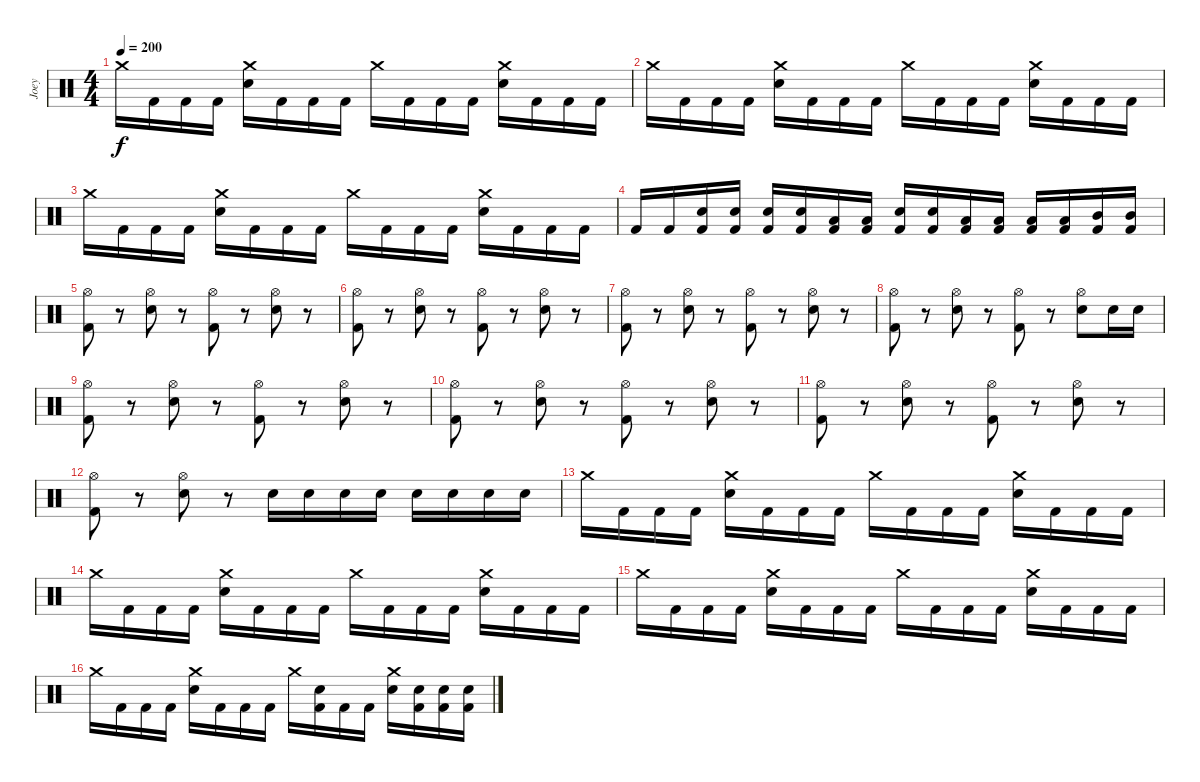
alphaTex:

\track ("Joey" "Joey") {instrument percussion}
\staff {score}
\articulation defaults
\ts (4 4)
\tempo 200
\clef neutral
\ks c "Crash medium (hit)".16{dy f} "Kick (hit) 2".16 "Kick (hit) 2".16 "Kick (hit) 2".16
("Crash medium (hit)" "Electric Snare (hit)").16 "Kick (hit) 2".16 "Kick (hit) 2".16 "Kick (hit) 2".16 "Crash medium (hit)".16 "Kick (hit) 2".16 "Kick (hit) 2".16 "Kick (hit) 2".16 ("Crash medium (hit)" "Electric Snare (hit)").16 "Kick (hit) 2".16 "Kick (hit) 2".16 "Kick (hit) 2".16 |
"Crash medium (hit)".16 "Kick (hit) 2".16 "Kick (hit) 2".16 "Kick (hit) 2".16 ("Crash medium (hit)" "Electric Snare (hit)").16 "Kick (hit) 2".16 "Kick (hit) 2".16 "Kick (hit) 2".16 "Crash medium (hit)".16 "Kick (hit) 2".16 "Kick (hit) 2".16 "Kick (hit) 2".16 ("Crash medium (hit)" "Electric Snare (hit)").16 "Kick (hit) 2".16 "Kick (hit) 2".16 "Kick (hit) 2".16 |
"Crash medium (hit)".16 "Kick (hit) 2".16 "Kick (hit) 2".16 "Kick (hit) 2".16 ("Crash medium (hit)" "Electric Snare (hit)").16 "Kick (hit) 2".16 "Kick (hit) 2".16 "Kick (hit) 2".16 "Crash medium (hit)".16 "Kick (hit) 2".16 "Kick (hit) 2".16 "Kick (hit) 2".16 ("Crash medium (hit)" "Electric Snare (hit)").16 "Kick (hit) 2".16 "Kick (hit) 2".16 "Kick (hit) 2".16 |
"Kick (hit) 2".16 "Kick (hit) 2".16 ("Kick (hit) 2" "Electric Snare (hit)").16 ("Kick (hit) 2" "Electric Snare (hit)").16 ("Kick (hit) 2" "Electric Snare (hit)").16 ("Kick (hit) 2" "Electric Snare (hit)").16 ("Kick (hit) 2" "Low Floor Tom (hit)").16 ("Kick (hit) 2" "Low Floor Tom (hit)").16 ("Kick (hit) 2" "Electric Snare (hit)").16 ("Kick (hit) 2" "Electric Snare (hit)").16 ("Kick (hit) 2" "Low Floor Tom (hit)").16 ("Kick (hit) 2" "Low Floor Tom (hit)").16 ("Kick (hit) 2" "Low Tom (hit)").16 ("Kick (hit) 2" "Low Tom (hit)").16 ("Kick (hit) 2" "Mid Tom (hit)").16 ("Kick (hit) 2" "Mid Tom (hit)").16 |
("Hi-Hat (open)" "Kick (hit) 2").8 r.8 ("Hi-Hat (open)" "Electric Snare (hit)").8 r.8 ("Hi-Hat (open)" "Kick (hit) 2").8 r.8 ("Hi-Hat (open)" "Electric Snare (hit)").8 r.8 |
("Hi-Hat (open)" "Kick (hit) 2").8 r.8 ("Hi-Hat (open)" "Electric Snare (hit)").8 r.8 ("Hi-Hat (open)" "Kick (hit) 2").8 r.8 ("Hi-Hat (open)" "Electric Snare (hit)").8 r.8 |
("Hi-Hat (open)" "Kick (hit) 2").8 r.8 ("Hi-Hat (open)" "Electric Snare (hit)").8 r.8 ("Hi-Hat (open)" "Kick (hit) 2").8 r.8 ("Hi-Hat (open)" "Electric Snare (hit)").8 r.8 |
("Hi-Hat (open)" "Kick (hit) 2").8 r.8 ("Hi-Hat (open)" "Electric Snare (hit)").8 r.8 ("Hi-Hat (open)" "Kick (hit) 2").8 r.8 ("Hi-Hat (open)" "Electric Snare (hit)").8 "Electric Snare (hit)".16 "Electric Snare (hit)".16 |
("Hi-Hat (open)" "Kick (hit) 2").8 r.8 ("Hi-Hat (open)" "Electric Snare (hit)").8 r.8 ("Hi-Hat (open)" "Kick (hit) 2").8 r.8 ("Hi-Hat (open)" "Electric Snare (hit)").8 r.8 |
("Hi-Hat (open)" "Kick (hit) 2").8 r.8 ("Hi-Hat (open)" "Electric Snare (hit)").8 r.8 ("Hi-Hat (open)" "Kick (hit) 2").8 r.8 ("Hi-Hat (open)" "Electric Snare (hit)").8 r.8 |
("Hi-Hat (open)" "Kick (hit) 2").8 r.8 ("Hi-Hat (open)" "Electric Snare (hit)").8 r.8 ("Hi-Hat (open)" "Kick (hit) 2").8 r.8 ("Hi-Hat (open)" "Electric Snare (hit)").8 r.8 |
("Hi-Hat (open)" "Kick (hit) 2").8 r.8 ("Hi-Hat (open)" "Electric Snare (hit)").8 r.8 "Electric Snare (hit)".16 "Electric Snare (hit)".16 "Electric Snare (hit)".16 "Electric Snare (hit)".16 "Electric Snare (hit)".16 "Electric Snare (hit)".16 "Electric Snare (hit)".16 "Electric Snare (hit)".16 |
"Crash medium (hit)".16 "Kick (hit) 2".16 "Kick (hit) 2".16 "Kick (hit) 2".16 ("Crash medium (hit)" "Electric Snare (hit)").16 "Kick (hit) 2".16 "Kick (hit) 2".16 "Kick (hit) 2".16 "Crash medium (hit)".16 "Kick (hit) 2".16 "Kick (hit) 2".16 "Kick (hit) 2".16 ("Crash medium (hit)" "Electric Snare (hit)").16 "Kick (hit) 2".16 "Kick (hit) 2".16 "Kick (hit) 2".16 |
"Crash medium (hit)".16 "Kick (hit) 2".16 "Kick (hit) 2".16 "Kick (hit) 2".16 ("Crash medium (hit)" "Electric Snare (hit)").16 "Kick (hit) 2".16 "Kick (hit) 2".16 "Kick (hit) 2".16 "Crash medium (hit)".16 "Kick (hit) 2".16 "Kick (hit) 2".16 "Kick (hit) 2".16 ("Crash medium (hit)" "Electric Snare (hit)").16 "Kick (hit) 2".16 "Kick (hit) 2".16 "Kick (hit) 2".16 |
"Crash medium (hit)".16 "Kick (hit) 2".16 "Kick (hit) 2".16 "Kick (hit) 2".16 ("Crash medium (hit)" "Electric Snare (hit)").16 "Kick (hit) 2".16 "Kick (hit) 2".16 "Kick (hit) 2".16 "Crash medium (hit)".16 "Kick (hit) 2".16 "Kick (hit) 2".16 "Kick (hit) 2".16 ("Crash medium (hit)" "Electric Snare (hit)").16 "Kick (hit) 2".16 "Kick (hit) 2".16 "Kick (hit) 2".16 |
"Crash medium (hit)".16 "Kick (hit) 2".16 "Kick (hit) 2".16 "Kick (hit) 2".16 ("Crash medium (hit)" "Electric Snare (hit)").16 "Kick (hit) 2".16 "Kick (hit) 2".16 "Kick (hit) 2".16 "Crash medium (hit)".16 ("Electric Snare (hit)" "Kick (hit) 2").16 "Kick (hit) 2".16 "Kick (hit) 2".16 ("Crash medium (hit)" "Electric Snare (hit)").16 ("Electric Snare (hit)" "Kick (hit) 2").16 ("Electric Snare (hit)" "Kick (hit) 2").16 ("Electric Snare (hit)" "Kick (hit) 2").16
